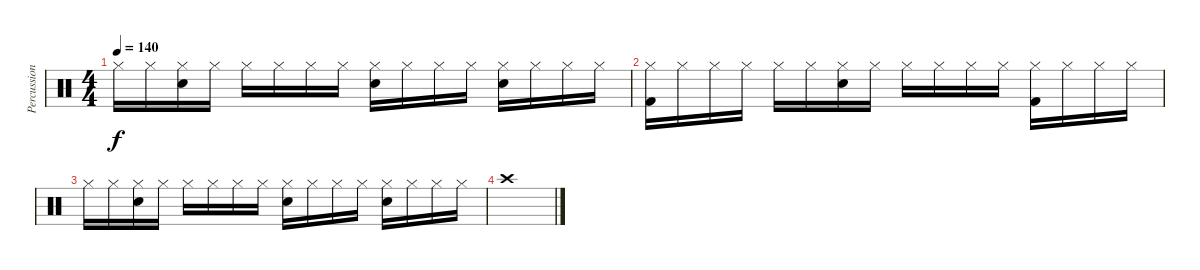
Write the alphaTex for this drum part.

\track ("Percussion" "Percussion") {instrument percussion}
\staff {score}
\articulation defaults
\ts (4 4)
\tempo 140
\clef neutral
\ks c "Hi-Hat (closed)".16{dy f} "Hi-Hat (closed)".16
("Hi-Hat (closed)" "Electric Snare (hit)").16 "Hi-Hat (closed)".16 "Hi-Hat (closed)".16 "Hi-Hat (closed)".16 "Hi-Hat (closed)".16 "Hi-Hat (closed)".16 ("Hi-Hat (closed)" "Electric Snare (hit)").16 "Hi-Hat (closed)".16 "Hi-Hat (closed)".16 "Hi-Hat (closed)".16 ("Hi-Hat (closed)" "Electric Snare (hit)").16 "Hi-Hat (closed)".16 "Hi-Hat (closed)".16 "Hi-Hat (closed)".16 |
("Hi-Hat (closed)" "Kick (hit) 2").16 "Hi-Hat (closed)".16 "Hi-Hat (closed)".16 "Hi-Hat (closed)".16 "Hi-Hat (closed)".16 "Hi-Hat (closed)".16 ("Hi-Hat (closed)" "Electric Snare (hit)").16 "Hi-Hat (closed)".16 "Hi-Hat (closed)".16 "Hi-Hat (closed)".16 "Hi-Hat (closed)".16 "Hi-Hat (closed)".16 ("Hi-Hat (closed)" "Kick (hit) 2").16 "Hi-Hat (closed)".16 "Hi-Hat (closed)".16 "Hi-Hat (closed)".16 |
"Hi-Hat (closed)".16 "Hi-Hat (closed)".16 ("Hi-Hat (closed)" "Electric Snare (hit)").16 "Hi-Hat (closed)".16 "Hi-Hat (closed)".16 "Hi-Hat (closed)".16 "Hi-Hat (closed)".16 "Hi-Hat (closed)".16 ("Hi-Hat (closed)" "Electric Snare (hit)").16 "Hi-Hat (closed)".16 "Hi-Hat (closed)".16 "Hi-Hat (closed)".16 ("Hi-Hat (closed)" "Electric Snare (hit)").16 "Hi-Hat (closed)".16 "Hi-Hat (closed)".16 "Hi-Hat (closed)".16 |
"Crash high (hit)".1
